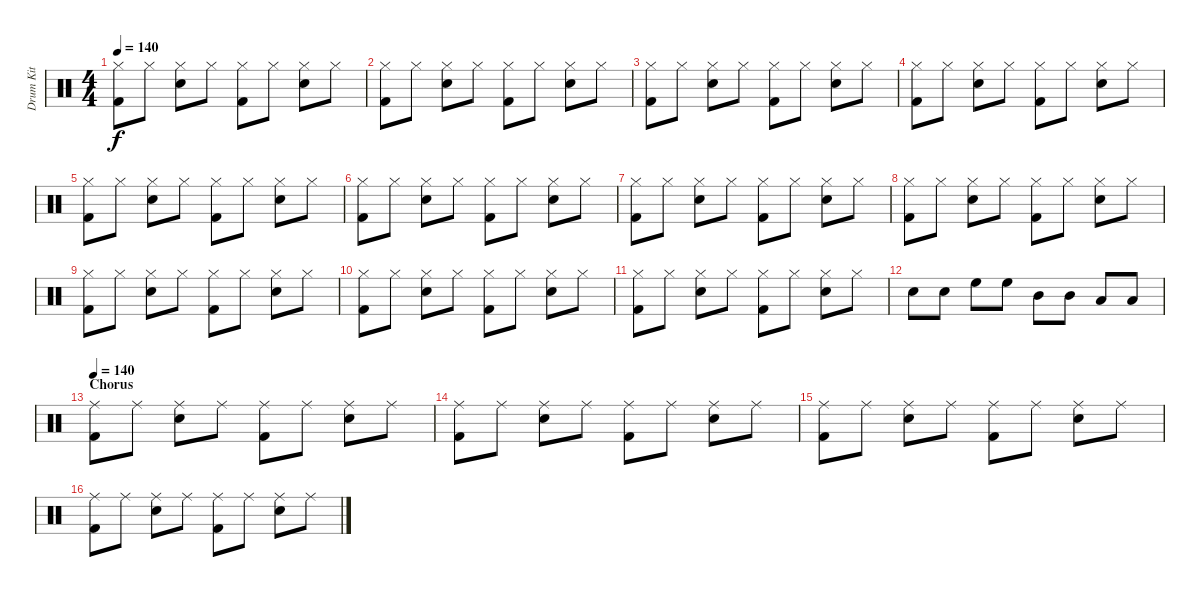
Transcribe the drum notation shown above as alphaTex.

\track ("Drum Kit" "Drum Kit") {instrument percussion}
\staff {score}
\articulation defaults
\ts (4 4)
\tempo 140
\clef neutral
\ks c
("Hi-Hat (closed)" "Kick (hit) 2").8{dy f} "Hi-Hat (closed)".8 ("Hi-Hat (closed)" "Snare (hit) 2").8 "Hi-Hat (closed)".8 ("Hi-Hat (closed)" "Kick (hit) 2").8 "Hi-Hat (closed)".8 ("Hi-Hat (closed)" "Snare (hit) 2").8 "Hi-Hat (closed)".8 |
("Hi-Hat (closed)" "Kick (hit) 2").8 "Hi-Hat (closed)".8 ("Hi-Hat (closed)" "Snare (hit) 2").8 "Hi-Hat (closed)".8 ("Hi-Hat (closed)" "Kick (hit) 2").8 "Hi-Hat (closed)".8 ("Hi-Hat (closed)" "Snare (hit) 2").8 "Hi-Hat (closed)".8 |
("Hi-Hat (closed)" "Kick (hit) 2").8 "Hi-Hat (closed)".8 ("Hi-Hat (closed)" "Snare (hit) 2").8 "Hi-Hat (closed)".8 ("Hi-Hat (closed)" "Kick (hit) 2").8 "Hi-Hat (closed)".8 ("Hi-Hat (closed)" "Snare (hit) 2").8 "Hi-Hat (closed)".8 |
("Hi-Hat (closed)" "Kick (hit) 2").8 "Hi-Hat (closed)".8 ("Hi-Hat (closed)" "Snare (hit) 2").8 "Hi-Hat (closed)".8 ("Hi-Hat (closed)" "Kick (hit) 2").8 "Hi-Hat (closed)".8 ("Hi-Hat (closed)" "Snare (hit) 2").8 "Hi-Hat (closed)".8 |
("Hi-Hat (closed)" "Kick (hit) 2").8 "Hi-Hat (closed)".8 ("Hi-Hat (closed)" "Snare (hit) 2").8 "Hi-Hat (closed)".8 ("Hi-Hat (closed)" "Kick (hit) 2").8 "Hi-Hat (closed)".8 ("Hi-Hat (closed)" "Snare (hit) 2").8 "Hi-Hat (closed)".8 |
("Hi-Hat (closed)" "Kick (hit) 2").8 "Hi-Hat (closed)".8 ("Hi-Hat (closed)" "Snare (hit) 2").8 "Hi-Hat (closed)".8 ("Hi-Hat (closed)" "Kick (hit) 2").8 "Hi-Hat (closed)".8 ("Hi-Hat (closed)" "Snare (hit) 2").8 "Hi-Hat (closed)".8 |
("Hi-Hat (closed)" "Kick (hit) 2").8 "Hi-Hat (closed)".8 ("Hi-Hat (closed)" "Snare (hit) 2").8 "Hi-Hat (closed)".8 ("Hi-Hat (closed)" "Kick (hit) 2").8 "Hi-Hat (closed)".8 ("Hi-Hat (closed)" "Snare (hit) 2").8 "Hi-Hat (closed)".8 |
("Hi-Hat (closed)" "Kick (hit) 2").8 "Hi-Hat (closed)".8 ("Hi-Hat (closed)" "Snare (hit) 2").8 "Hi-Hat (closed)".8 ("Hi-Hat (closed)" "Kick (hit) 2").8 "Hi-Hat (closed)".8 ("Hi-Hat (closed)" "Snare (hit) 2").8 "Hi-Hat (closed)".8 |
("Hi-Hat (closed)" "Kick (hit) 2").8 "Hi-Hat (closed)".8 ("Hi-Hat (closed)" "Snare (hit) 2").8 "Hi-Hat (closed)".8 ("Hi-Hat (closed)" "Kick (hit) 2").8 "Hi-Hat (closed)".8 ("Hi-Hat (closed)" "Snare (hit) 2").8 "Hi-Hat (closed)".8 |
("Hi-Hat (closed)" "Kick (hit) 2").8 "Hi-Hat (closed)".8 ("Hi-Hat (closed)" "Snare (hit) 2").8 "Hi-Hat (closed)".8 ("Hi-Hat (closed)" "Kick (hit) 2").8 "Hi-Hat (closed)".8 ("Hi-Hat (closed)" "Snare (hit) 2").8 "Hi-Hat (closed)".8 |
("Hi-Hat (closed)" "Kick (hit) 2").8 "Hi-Hat (closed)".8 ("Hi-Hat (closed)" "Snare (hit) 2").8 "Hi-Hat (closed)".8 ("Hi-Hat (closed)" "Kick (hit) 2").8 "Hi-Hat (closed)".8 ("Hi-Hat (closed)" "Snare (hit) 2").8 "Hi-Hat (closed)".8 |
"Snare (hit) 2".8 "Snare (hit) 2".8 "High Floor Tom (hit)".8 "High Floor Tom (hit)".8 "Mid Tom (hit)".8 "Mid Tom (hit)".8 "Low Tom (hit)".8 "Low Tom (hit)".8 |
\section ("" "Chorus")
\tempo 140
("Ride (middle)" "Kick (hit) 2").8 "Ride (middle)".8 ("Ride (middle)" "Snare (hit) 2").8 "Ride (middle)".8 ("Ride (middle)" "Kick (hit) 2").8 "Ride (middle)".8 ("Ride (middle)" "Snare (hit) 2").8 "Ride (middle)".8 |
("Ride (middle)" "Kick (hit) 2").8 "Ride (middle)".8 ("Ride (middle)" "Snare (hit) 2").8 "Ride (middle)".8 ("Ride (middle)" "Kick (hit) 2").8 "Ride (middle)".8 ("Ride (middle)" "Snare (hit) 2").8 "Ride (middle)".8 |
("Ride (middle)" "Kick (hit) 2").8 "Ride (middle)".8 ("Ride (middle)" "Snare (hit) 2").8 "Ride (middle)".8 ("Ride (middle)" "Kick (hit) 2").8 "Ride (middle)".8 ("Ride (middle)" "Snare (hit) 2").8 "Ride (middle)".8 |
("Ride (middle)" "Kick (hit) 2").8 "Ride (middle)".8 ("Ride (middle)" "Snare (hit) 2").8 "Ride (middle)".8 ("Ride (middle)" "Kick (hit) 2").8 "Ride (middle)".8 ("Ride (middle)" "Snare (hit) 2").8 "Ride (middle)".8
